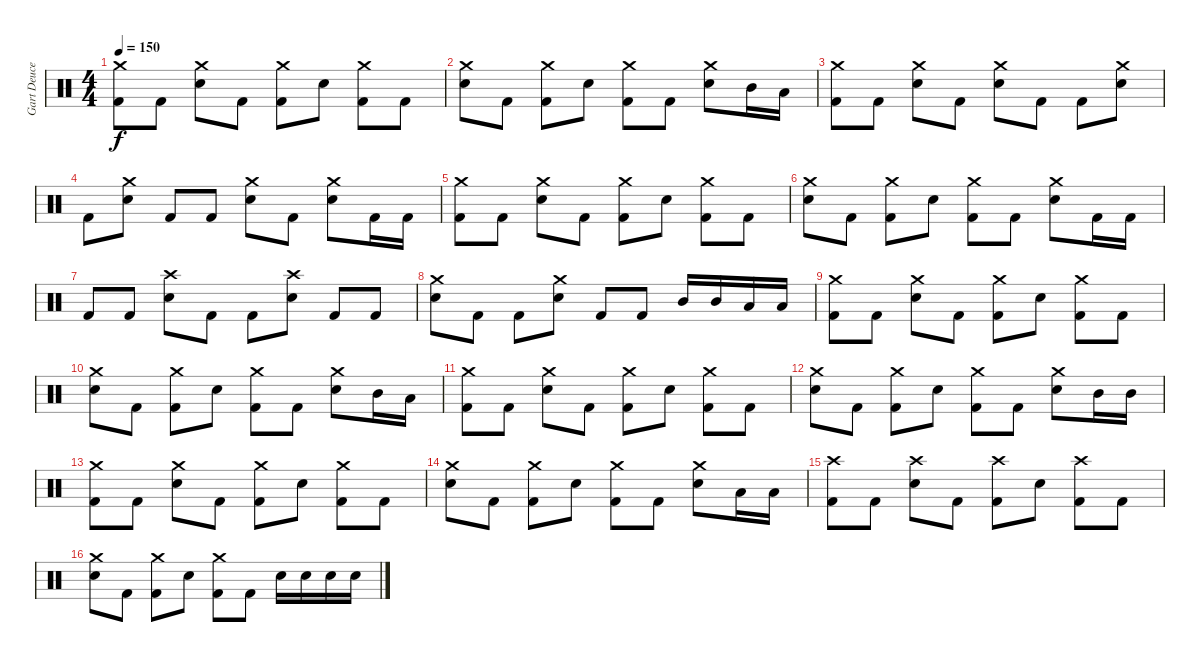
\track ("Gart Deuce" "Gart Deuce") {instrument percussion}
\staff {score}
\articulation defaults
\ts (4 4)
\tempo 150
\clef neutral
\ks c
("Crash medium (hit)" "Kick (hit) 2").8{dy f} "Kick (hit) 2".8 ("Crash medium (hit)" "Snare (hit) 2").8 "Kick (hit) 2".8 ("Crash medium (hit)" "Kick (hit) 2").8 "Snare (hit) 2".8 ("Crash medium (hit)" "Kick (hit) 2").8 "Kick (hit) 2".8 |
("Crash medium (hit)" "Snare (hit) 2").8 "Kick (hit) 2".8 ("Crash medium (hit)" "Kick (hit) 2").8 "Snare (hit) 2".8 ("Crash medium (hit)" "Kick (hit) 2").8 "Kick (hit) 2".8 ("Crash medium (hit)" "Snare (hit) 2").8 "Mid Tom (hit)".16 "Low Tom (hit)".16 |
("Crash medium (hit)" "Kick (hit) 2").8 "Kick (hit) 2".8 ("Crash medium (hit)" "Snare (hit) 2").8 "Kick (hit) 2".8 ("Crash medium (hit)" "Snare (hit) 2").8 "Kick (hit) 2".8 "Kick (hit) 2".8 ("Crash medium (hit)" "Snare (hit) 2").8 |
"Kick (hit) 2".8 ("Crash medium (hit)" "Snare (hit) 2").8 "Kick (hit) 2".8 "Kick (hit) 2".8 ("Crash medium (hit)" "Snare (hit) 2").8 "Kick (hit) 2".8 ("Crash medium (hit)" "Snare (hit) 2").8 "Kick (hit) 2".16 "Kick (hit) 2".16 |
("Crash medium (hit)" "Kick (hit) 2").8 "Kick (hit) 2".8 ("Crash medium (hit)" "Snare (hit) 2").8 "Kick (hit) 2".8 ("Crash medium (hit)" "Kick (hit) 2").8 "Snare (hit) 2".8 ("Crash medium (hit)" "Kick (hit) 2").8 "Kick (hit) 2".8 |
("Crash medium (hit)" "Snare (hit) 2").8 "Kick (hit) 2".8 ("Crash medium (hit)" "Kick (hit) 2").8 "Snare (hit) 2".8 ("Crash medium (hit)" "Kick (hit) 2").8 "Kick (hit) 2".8 ("Crash medium (hit)" "Snare (hit) 2").8 "Kick (hit) 2".16 "Kick (hit) 2".16 |
"Kick (hit) 2".8 "Kick (hit) 2".8 ("Crash high (hit)" "Snare (hit) 2").8 "Kick (hit) 2".8 "Kick (hit) 2".8 ("Crash high (hit)" "Snare (hit) 2").8 "Kick (hit) 2".8 "Kick (hit) 2".8 |
("Crash medium (hit)" "Snare (hit) 2").8 "Kick (hit) 2".8 "Kick (hit) 2".8 ("Crash medium (hit)" "Snare (hit) 2").8 "Kick (hit) 2".8 "Kick (hit) 2".8 "Mid Tom (hit)".16 "Mid Tom (hit)".16 "Low Tom (hit)".16 "Low Tom (hit)".16 |
("Crash medium (hit)" "Kick (hit) 2").8 "Kick (hit) 2".8 ("Crash medium (hit)" "Snare (hit) 2").8 "Kick (hit) 2".8 ("Crash medium (hit)" "Kick (hit) 2").8 "Snare (hit) 2".8 ("Crash medium (hit)" "Kick (hit) 2").8 "Kick (hit) 2".8 |
("Crash medium (hit)" "Snare (hit) 2").8 "Kick (hit) 2".8 ("Crash medium (hit)" "Kick (hit) 2").8 "Snare (hit) 2".8 ("Crash medium (hit)" "Kick (hit) 2").8 "Kick (hit) 2".8 ("Crash medium (hit)" "Snare (hit) 2").8 "Mid Tom (hit)".16 "Low Tom (hit)".16 |
("Crash medium (hit)" "Kick (hit) 2").8 "Kick (hit) 2".8 ("Crash medium (hit)" "Snare (hit) 2").8 "Kick (hit) 2".8 ("Crash medium (hit)" "Kick (hit) 2").8 "Snare (hit) 2".8 ("Crash medium (hit)" "Kick (hit) 2").8 "Kick (hit) 2".8 |
("Crash medium (hit)" "Snare (hit) 2").8 "Kick (hit) 2".8 ("Crash medium (hit)" "Kick (hit) 2").8 "Snare (hit) 2".8 ("Crash medium (hit)" "Kick (hit) 2").8 "Kick (hit) 2".8 ("Crash medium (hit)" "Snare (hit) 2").8 "Mid Tom (hit)".16 "Mid Tom (hit)".16 |
("Crash medium (hit)" "Kick (hit) 2").8 "Kick (hit) 2".8 ("Crash medium (hit)" "Snare (hit) 2").8 "Kick (hit) 2".8 ("Crash medium (hit)" "Kick (hit) 2").8 "Snare (hit) 2".8 ("Crash medium (hit)" "Kick (hit) 2").8 "Kick (hit) 2".8 |
("Crash medium (hit)" "Snare (hit) 2").8 "Kick (hit) 2".8 ("Crash medium (hit)" "Kick (hit) 2").8 "Snare (hit) 2".8 ("Crash medium (hit)" "Kick (hit) 2").8 "Kick (hit) 2".8 ("Crash medium (hit)" "Snare (hit) 2").8 "Low Tom (hit)".16 "Low Tom (hit)".16 |
("Crash high (hit)" "Kick (hit) 2").8 "Kick (hit) 2".8 ("Crash high (hit)" "Snare (hit) 2").8 "Kick (hit) 2".8 ("Crash high (hit)" "Kick (hit) 2").8 "Snare (hit) 2".8 ("Crash high (hit)" "Kick (hit) 2").8 "Kick (hit) 2".8 |
("Crash medium (hit)" "Snare (hit) 2").8 "Kick (hit) 2".8 ("Crash medium (hit)" "Kick (hit) 2").8 "Snare (hit) 2".8 ("Crash medium (hit)" "Kick (hit) 2").8 "Kick (hit) 2".8 "Snare (hit) 2".16 "Snare (hit) 2".16 "Snare (hit) 2".16 "Snare (hit) 2".16
